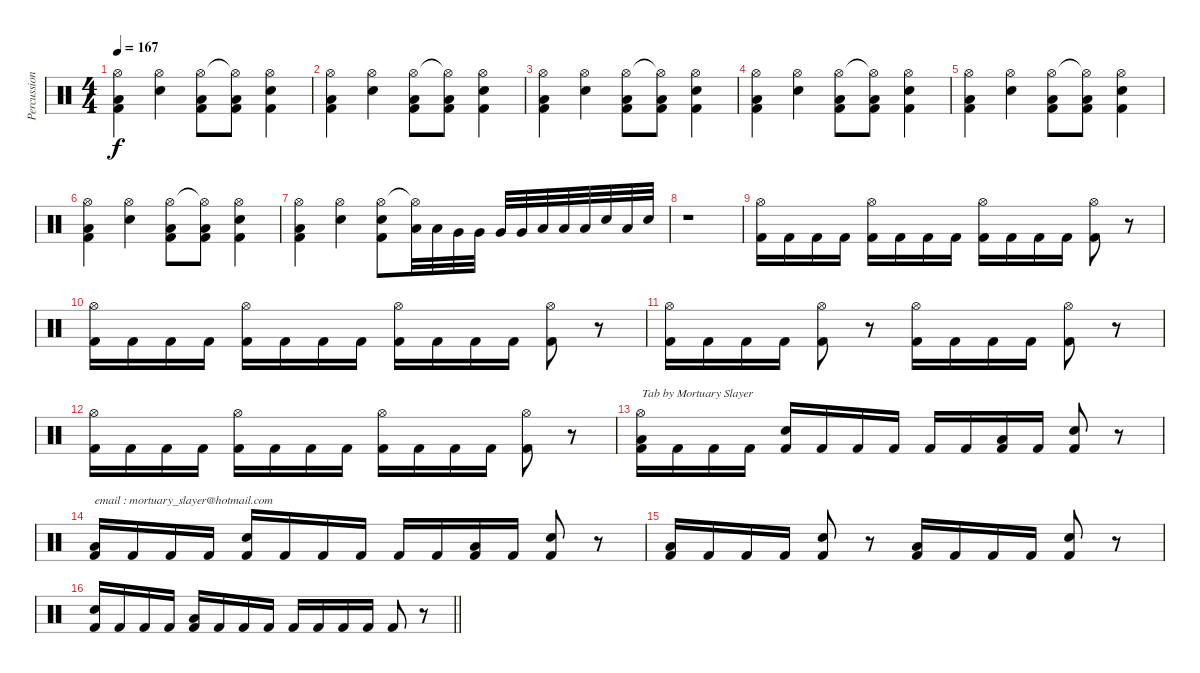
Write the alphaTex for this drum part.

\track ("Percussions" "Percussion") {instrument percussion}
\staff {score}
\articulation defaults
\ts (4 4)
\tempo 167
\clef neutral
\ks c
("Hi-Hat (open)" "Low Floor Tom (hit)" "Kick (hit) 2").4{dy f} ("Hi-Hat (open)" "Electric Snare (hit)").4 ("Hi-Hat (open)" "Low Floor Tom (hit)" "Kick (hit) 2").8 ("Hi-Hat (open)"{t} "Low Floor Tom (hit)" "Kick (hit) 2").8 ("Hi-Hat (open)" "Electric Snare (hit)" "Kick (hit) 2").4 |
("Hi-Hat (open)" "Low Floor Tom (hit)" "Kick (hit) 2").4 ("Hi-Hat (open)" "Electric Snare (hit)").4 ("Hi-Hat (open)" "Low Floor Tom (hit)" "Kick (hit) 2").8 ("Hi-Hat (open)"{t} "Low Floor Tom (hit)" "Kick (hit) 2").8 ("Hi-Hat (open)" "Electric Snare (hit)" "Kick (hit) 2").4 |
("Hi-Hat (open)" "Low Floor Tom (hit)" "Kick (hit) 2").4 ("Hi-Hat (open)" "Electric Snare (hit)").4 ("Hi-Hat (open)" "Low Floor Tom (hit)" "Kick (hit) 2").8 ("Hi-Hat (open)"{t} "Low Floor Tom (hit)" "Kick (hit) 2").8 ("Hi-Hat (open)" "Electric Snare (hit)" "Kick (hit) 2").4 |
("Hi-Hat (open)" "Low Floor Tom (hit)" "Kick (hit) 2").4 ("Hi-Hat (open)" "Electric Snare (hit)").4 ("Hi-Hat (open)" "Low Floor Tom (hit)" "Kick (hit) 2").8 ("Hi-Hat (open)"{t} "Low Floor Tom (hit)" "Kick (hit) 2").8 ("Hi-Hat (open)" "Electric Snare (hit)" "Kick (hit) 2").4 |
("Hi-Hat (open)" "Low Floor Tom (hit)" "Kick (hit) 2").4 ("Hi-Hat (open)" "Electric Snare (hit)").4 ("Hi-Hat (open)" "Low Floor Tom (hit)" "Kick (hit) 2").8 ("Hi-Hat (open)"{t} "Low Floor Tom (hit)" "Kick (hit) 2").8 ("Hi-Hat (open)" "Electric Snare (hit)" "Kick (hit) 2").4 |
("Hi-Hat (open)" "Low Floor Tom (hit)" "Kick (hit) 2").4 ("Hi-Hat (open)" "Electric Snare (hit)").4 ("Hi-Hat (open)" "Low Floor Tom (hit)" "Kick (hit) 2").8 ("Hi-Hat (open)"{t} "Low Floor Tom (hit)" "Kick (hit) 2").8 ("Hi-Hat (open)" "Electric Snare (hit)" "Kick (hit) 2").4 |
("Hi-Hat (open)" "Low Floor Tom (hit)" "Kick (hit) 2").4 ("Hi-Hat (open)" "Electric Snare (hit)").4 ("Hi-Hat (open)" "Electric Snare (hit)" "Kick (hit) 2").8 ("Hi-Hat (open)"{t} "Low Tom (hit)").32 "Low Tom (hit)".32 "Very Low Tom (hit)".32 "Very Low Tom (hit)".32 "Very Low Tom (hit)".32 "Very Low Tom (hit)".32 "Low Floor Tom (hit)".32 "Low Floor Tom (hit)".32 "Low Floor Tom (hit)".32 "Electric Snare (hit)".32 "Low Floor Tom (hit)".32 "Electric Snare (hit)".32 |
r.1 |
("Hi-Hat (open)" "Kick (hit) 2").16 "Kick (hit) 2".16 "Kick (hit) 2".16 "Kick (hit) 2".16 ("Hi-Hat (open)" "Kick (hit) 2").16 "Kick (hit) 2".16 "Kick (hit) 2".16 "Kick (hit) 2".16 ("Hi-Hat (open)" "Kick (hit) 2").16 "Kick (hit) 2".16 "Kick (hit) 2".16 "Kick (hit) 2".16 ("Hi-Hat (open)" "Kick (hit) 2").8 r.8 |
("Hi-Hat (open)" "Kick (hit) 2").16 "Kick (hit) 2".16 "Kick (hit) 2".16 "Kick (hit) 2".16 ("Hi-Hat (open)" "Kick (hit) 2").16 "Kick (hit) 2".16 "Kick (hit) 2".16 "Kick (hit) 2".16 ("Hi-Hat (open)" "Kick (hit) 2").16 "Kick (hit) 2".16 "Kick (hit) 2".16 "Kick (hit) 2".16 ("Hi-Hat (open)" "Kick (hit) 2").8 r.8 |
("Hi-Hat (open)" "Kick (hit) 2").16 "Kick (hit) 2".16 "Kick (hit) 2".16 "Kick (hit) 2".16 ("Hi-Hat (open)" "Kick (hit) 2").8 r.8 ("Hi-Hat (open)" "Kick (hit) 2").16 "Kick (hit) 2".16 "Kick (hit) 2".16 "Kick (hit) 2".16 ("Hi-Hat (open)" "Kick (hit) 2").8 r.8 |
("Hi-Hat (open)" "Kick (hit) 2").16 "Kick (hit) 2".16 "Kick (hit) 2".16 "Kick (hit) 2".16 ("Hi-Hat (open)" "Kick (hit) 2").16 "Kick (hit) 2".16 "Kick (hit) 2".16 "Kick (hit) 2".16 ("Hi-Hat (open)" "Kick (hit) 2").16 "Kick (hit) 2".16 "Kick (hit) 2".16 "Kick (hit) 2".16 ("Hi-Hat (open)" "Kick (hit) 2").8 r.8 |
("Hi-Hat (open)" "Low Floor Tom (hit)" "Kick (hit) 2").16{txt "Tab by Mortuary Slayer"} "Kick (hit) 2".16 "Kick (hit) 2".16 "Kick (hit) 2".16 ("Electric Snare (hit)" "Kick (hit) 2").16 "Kick (hit) 2".16 "Kick (hit) 2".16 "Kick (hit) 2".16 "Kick (hit) 2".16 "Kick (hit) 2".16 ("Low Floor Tom (hit)" "Kick (hit) 2").16 "Kick (hit) 2".16 ("Electric Snare (hit)" "Kick (hit) 2").8 r.8 |
("Low Floor Tom (hit)" "Kick (hit) 2").16{txt "email : mortuary_slayer@hotmail.com"} "Kick (hit) 2".16 "Kick (hit) 2".16 "Kick (hit) 2".16 ("Electric Snare (hit)" "Kick (hit) 2").16 "Kick (hit) 2".16 "Kick (hit) 2".16 "Kick (hit) 2".16 "Kick (hit) 2".16 "Kick (hit) 2".16 ("Low Floor Tom (hit)" "Kick (hit) 2").16 "Kick (hit) 2".16 ("Electric Snare (hit)" "Kick (hit) 2").8 r.8 |
("Low Floor Tom (hit)" "Kick (hit) 2").16 "Kick (hit) 2".16 "Kick (hit) 2".16 "Kick (hit) 2".16 ("Electric Snare (hit)" "Kick (hit) 2").8 r.8 ("Low Floor Tom (hit)" "Kick (hit) 2").16 "Kick (hit) 2".16 "Kick (hit) 2".16 "Kick (hit) 2".16 ("Electric Snare (hit)" "Kick (hit) 2").8 r.8 |
\barLineRight lightlight
("Electric Snare (hit)" "Kick (hit) 2").16 "Kick (hit) 2".16 "Kick (hit) 2".16 "Kick (hit) 2".16 ("Low Floor Tom (hit)" "Kick (hit) 2").16 "Kick (hit) 2".16 "Kick (hit) 2".16 "Kick (hit) 2".16 "Kick (hit) 2".16 "Kick (hit) 2".16 "Kick (hit) 2".16 "Kick (hit) 2".16 "Kick (hit) 2".8 r.8
